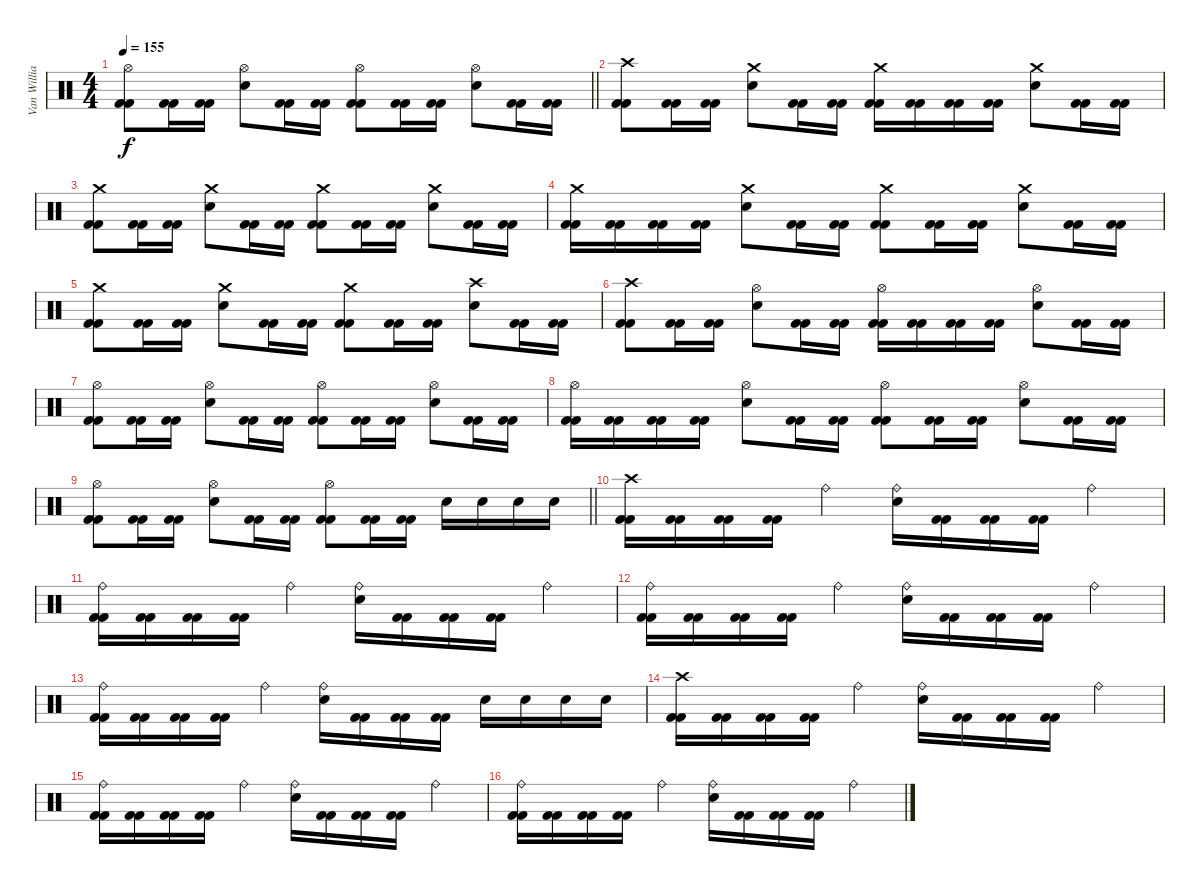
\track ("Van Williams" "Van Willia") {instrument percussion}
\staff {score}
\articulation defaults
\ts (4 4)
\tempo 155
\clef neutral
\barLineRight lightlight
\ks c
("Hi-Hat (open)" "Kick (hit) 2" "Kick (hit) 2").8{dy f} ("Kick (hit) 2" "Kick (hit) 2").16 ("Kick (hit) 2" "Kick (hit) 2").16 ("Hi-Hat (open)" "Electric Snare (hit)").8 ("Kick (hit) 2" "Kick (hit) 2").16 ("Kick (hit) 2" "Kick (hit) 2").16 ("Hi-Hat (open)" "Kick (hit) 2" "Kick (hit) 2").8 ("Kick (hit) 2" "Kick (hit) 2").16 ("Kick (hit) 2" "Kick (hit) 2").16 ("Hi-Hat (open)" "Electric Snare (hit)").8 ("Kick (hit) 2" "Kick (hit) 2").16 ("Kick (hit) 2" "Kick (hit) 2").16 |
("Crash high (hit)" "Kick (hit) 2" "Kick (hit) 2").8 ("Kick (hit) 2" "Kick (hit) 2").16 ("Kick (hit) 2" "Kick (hit) 2").16 ("Crash medium (hit)" "Electric Snare (hit)").8 ("Kick (hit) 2" "Kick (hit) 2").16 ("Kick (hit) 2" "Kick (hit) 2").16 ("Crash medium (hit)" "Kick (hit) 2" "Kick (hit) 2").16 ("Kick (hit) 2" "Kick (hit) 2").16 ("Kick (hit) 2" "Kick (hit) 2").16 ("Kick (hit) 2" "Kick (hit) 2").16 ("Crash medium (hit)" "Electric Snare (hit)").8 ("Kick (hit) 2" "Kick (hit) 2").16 ("Kick (hit) 2" "Kick (hit) 2").16 |
("Crash medium (hit)" "Kick (hit) 2" "Kick (hit) 2").8 ("Kick (hit) 2" "Kick (hit) 2").16 ("Kick (hit) 2" "Kick (hit) 2").16 ("Crash medium (hit)" "Electric Snare (hit)").8 ("Kick (hit) 2" "Kick (hit) 2").16 ("Kick (hit) 2" "Kick (hit) 2").16 ("Crash medium (hit)" "Kick (hit) 2" "Kick (hit) 2").8 ("Kick (hit) 2" "Kick (hit) 2").16 ("Kick (hit) 2" "Kick (hit) 2").16 ("Crash medium (hit)" "Electric Snare (hit)").8 ("Kick (hit) 2" "Kick (hit) 2").16 ("Kick (hit) 2" "Kick (hit) 2").16 |
("Crash medium (hit)" "Kick (hit) 2" "Kick (hit) 2").16 ("Kick (hit) 2" "Kick (hit) 2").16 ("Kick (hit) 2" "Kick (hit) 2").16 ("Kick (hit) 2" "Kick (hit) 2").16 ("Crash medium (hit)" "Electric Snare (hit)").8 ("Kick (hit) 2" "Kick (hit) 2").16 ("Kick (hit) 2" "Kick (hit) 2").16 ("Crash medium (hit)" "Kick (hit) 2" "Kick (hit) 2").8 ("Kick (hit) 2" "Kick (hit) 2").16 ("Kick (hit) 2" "Kick (hit) 2").16 ("Crash medium (hit)" "Electric Snare (hit)").8 ("Kick (hit) 2" "Kick (hit) 2").16 ("Kick (hit) 2" "Kick (hit) 2").16 |
("Crash medium (hit)" "Kick (hit) 2" "Kick (hit) 2").8 ("Kick (hit) 2" "Kick (hit) 2").16 ("Kick (hit) 2" "Kick (hit) 2").16 ("Crash medium (hit)" "Electric Snare (hit)").8 ("Kick (hit) 2" "Kick (hit) 2").16 ("Kick (hit) 2" "Kick (hit) 2").16 ("Crash medium (hit)" "Kick (hit) 2" "Kick (hit) 2").8 ("Kick (hit) 2" "Kick (hit) 2").16 ("Kick (hit) 2" "Kick (hit) 2").16 ("Crash high (hit)" "Electric Snare (hit)").8 ("Kick (hit) 2" "Kick (hit) 2").16 ("Kick (hit) 2" "Kick (hit) 2").16 |
("Crash high (hit)" "Kick (hit) 2" "Kick (hit) 2").8 ("Kick (hit) 2" "Kick (hit) 2").16 ("Kick (hit) 2" "Kick (hit) 2").16 ("Hi-Hat (open)" "Electric Snare (hit)").8 ("Kick (hit) 2" "Kick (hit) 2").16 ("Kick (hit) 2" "Kick (hit) 2").16 ("Hi-Hat (open)" "Kick (hit) 2" "Kick (hit) 2").16 ("Kick (hit) 2" "Kick (hit) 2").16 ("Kick (hit) 2" "Kick (hit) 2").16 ("Kick (hit) 2" "Kick (hit) 2").16 ("Hi-Hat (open)" "Electric Snare (hit)").8 ("Kick (hit) 2" "Kick (hit) 2").16 ("Kick (hit) 2" "Kick (hit) 2").16 |
("Hi-Hat (open)" "Kick (hit) 2" "Kick (hit) 2").8 ("Kick (hit) 2" "Kick (hit) 2").16 ("Kick (hit) 2" "Kick (hit) 2").16 ("Hi-Hat (open)" "Electric Snare (hit)").8 ("Kick (hit) 2" "Kick (hit) 2").16 ("Kick (hit) 2" "Kick (hit) 2").16 ("Hi-Hat (open)" "Kick (hit) 2" "Kick (hit) 2").8 ("Kick (hit) 2" "Kick (hit) 2").16 ("Kick (hit) 2" "Kick (hit) 2").16 ("Hi-Hat (open)" "Electric Snare (hit)").8 ("Kick (hit) 2" "Kick (hit) 2").16 ("Kick (hit) 2" "Kick (hit) 2").16 |
("Hi-Hat (open)" "Kick (hit) 2" "Kick (hit) 2").16 ("Kick (hit) 2" "Kick (hit) 2").16 ("Kick (hit) 2" "Kick (hit) 2").16 ("Kick (hit) 2" "Kick (hit) 2").16 ("Hi-Hat (open)" "Electric Snare (hit)").8 ("Kick (hit) 2" "Kick (hit) 2").16 ("Kick (hit) 2" "Kick (hit) 2").16 ("Hi-Hat (open)" "Kick (hit) 2" "Kick (hit) 2").8 ("Kick (hit) 2" "Kick (hit) 2").16 ("Kick (hit) 2" "Kick (hit) 2").16 ("Hi-Hat (open)" "Electric Snare (hit)").8 ("Kick (hit) 2" "Kick (hit) 2").16 ("Kick (hit) 2" "Kick (hit) 2").16 |
\barLineRight lightlight
("Hi-Hat (open)" "Kick (hit) 2" "Kick (hit) 2").8 ("Kick (hit) 2" "Kick (hit) 2").16 ("Kick (hit) 2" "Kick (hit) 2").16 ("Hi-Hat (open)" "Electric Snare (hit)").8 ("Kick (hit) 2" "Kick (hit) 2").16 ("Kick (hit) 2" "Kick (hit) 2").16 ("Hi-Hat (open)" "Kick (hit) 2" "Kick (hit) 2").8 ("Kick (hit) 2" "Kick (hit) 2").16 ("Kick (hit) 2" "Kick (hit) 2").16 "Electric Snare (hit)".16 "Electric Snare (hit)".16 "Electric Snare (hit)".16 "Electric Snare (hit)".16 |
("Crash high (hit)" "Kick (hit) 2" "Kick (hit) 2").16 ("Kick (hit) 2" "Kick (hit) 2").16 ("Kick (hit) 2" "Kick (hit) 2").16 ("Kick (hit) 2" "Kick (hit) 2").16 "Ride (bell)".4 ("Ride (bell)" "Electric Snare (hit)").16 ("Kick (hit) 2" "Kick (hit) 2").16 ("Kick (hit) 2" "Kick (hit) 2").16 ("Kick (hit) 2" "Kick (hit) 2").16 "Ride (bell)".4 |
("Ride (bell)" "Kick (hit) 2" "Kick (hit) 2").16 ("Kick (hit) 2" "Kick (hit) 2").16 ("Kick (hit) 2" "Kick (hit) 2").16 ("Kick (hit) 2" "Kick (hit) 2").16 "Ride (bell)".4 ("Ride (bell)" "Electric Snare (hit)").16 ("Kick (hit) 2" "Kick (hit) 2").16 ("Kick (hit) 2" "Kick (hit) 2").16 ("Kick (hit) 2" "Kick (hit) 2").16 "Ride (bell)".4 |
("Ride (bell)" "Kick (hit) 2" "Kick (hit) 2").16 ("Kick (hit) 2" "Kick (hit) 2").16 ("Kick (hit) 2" "Kick (hit) 2").16 ("Kick (hit) 2" "Kick (hit) 2").16 "Ride (bell)".4 ("Ride (bell)" "Electric Snare (hit)").16 ("Kick (hit) 2" "Kick (hit) 2").16 ("Kick (hit) 2" "Kick (hit) 2").16 ("Kick (hit) 2" "Kick (hit) 2").16 "Ride (bell)".4 |
("Ride (bell)" "Kick (hit) 2" "Kick (hit) 2").16 ("Kick (hit) 2" "Kick (hit) 2").16 ("Kick (hit) 2" "Kick (hit) 2").16 ("Kick (hit) 2" "Kick (hit) 2").16 "Ride (bell)".4 ("Ride (bell)" "Electric Snare (hit)").16 ("Kick (hit) 2" "Kick (hit) 2").16 ("Kick (hit) 2" "Kick (hit) 2").16 ("Kick (hit) 2" "Kick (hit) 2").16 "Electric Snare (hit)".16 "Electric Snare (hit)".16 "Electric Snare (hit)".16 "Electric Snare (hit)".16 |
("Crash high (hit)" "Kick (hit) 2" "Kick (hit) 2").16 ("Kick (hit) 2" "Kick (hit) 2").16 ("Kick (hit) 2" "Kick (hit) 2").16 ("Kick (hit) 2" "Kick (hit) 2").16 "Ride (bell)".4 ("Ride (bell)" "Electric Snare (hit)").16 ("Kick (hit) 2" "Kick (hit) 2").16 ("Kick (hit) 2" "Kick (hit) 2").16 ("Kick (hit) 2" "Kick (hit) 2").16 "Ride (bell)".4 |
("Ride (bell)" "Kick (hit) 2" "Kick (hit) 2").16 ("Kick (hit) 2" "Kick (hit) 2").16 ("Kick (hit) 2" "Kick (hit) 2").16 ("Kick (hit) 2" "Kick (hit) 2").16 "Ride (bell)".4 ("Ride (bell)" "Electric Snare (hit)").16 ("Kick (hit) 2" "Kick (hit) 2").16 ("Kick (hit) 2" "Kick (hit) 2").16 ("Kick (hit) 2" "Kick (hit) 2").16 "Ride (bell)".4 |
("Ride (bell)" "Kick (hit) 2" "Kick (hit) 2").16 ("Kick (hit) 2" "Kick (hit) 2").16 ("Kick (hit) 2" "Kick (hit) 2").16 ("Kick (hit) 2" "Kick (hit) 2").16 "Ride (bell)".4 ("Ride (bell)" "Electric Snare (hit)").16 ("Kick (hit) 2" "Kick (hit) 2").16 ("Kick (hit) 2" "Kick (hit) 2").16 ("Kick (hit) 2" "Kick (hit) 2").16 "Ride (bell)".4
